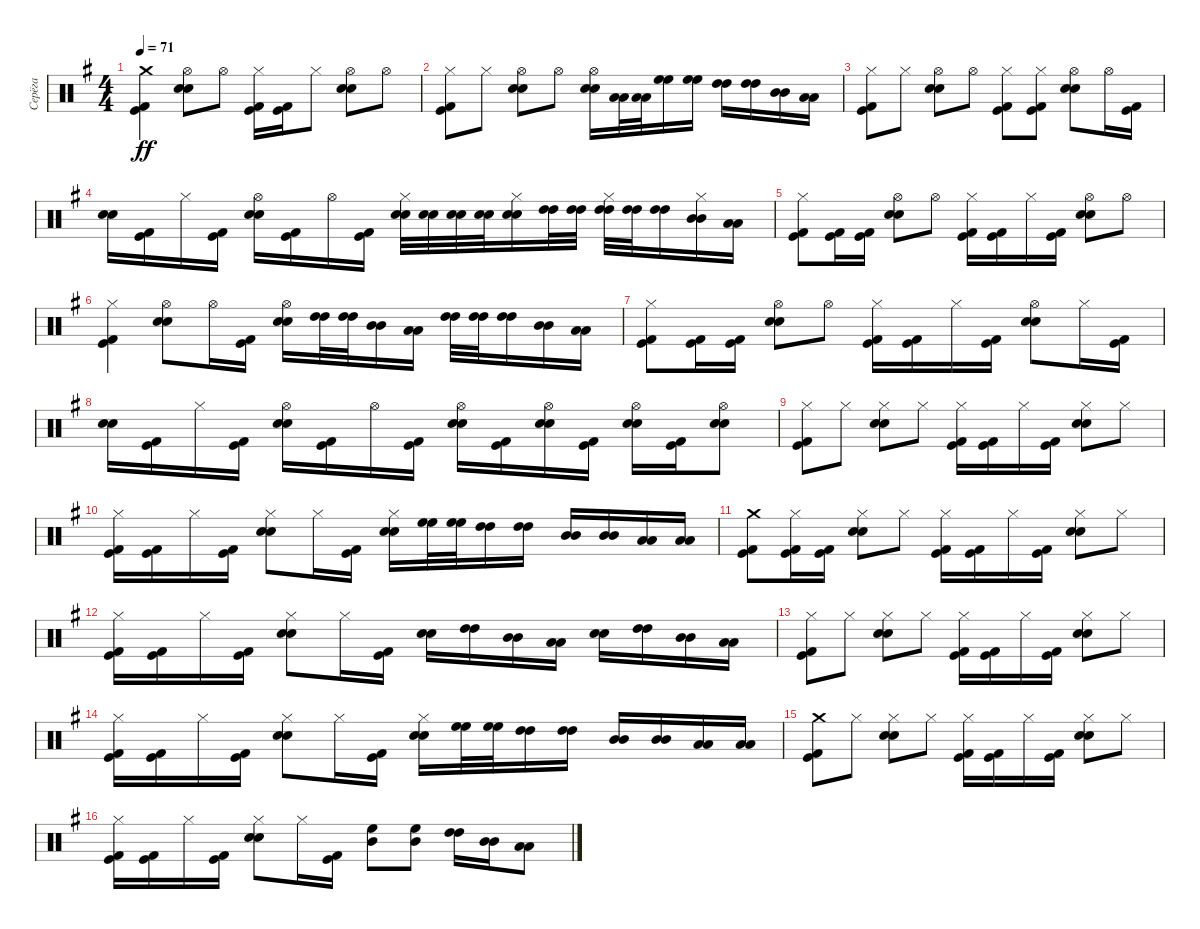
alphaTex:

\track ("Серёга" "Серёга") {instrument percussion}
\staff {score}
\articulation defaults
\ts (4 4)
\tempo 71
\clef neutral
\ks eminor
("Crash medium (hit)" "Kick (hit)" "Kick (hit) 2").4{dy ff} ("Hi-Hat (open)" "Electric Snare (hit)" "Snare (hit) 2").8 "Hi-Hat (open)".8 ("Hi-Hat (closed)" "Kick (hit)" "Kick (hit) 2").16 ("Kick (hit)" "Kick (hit) 2").16 "Hi-Hat (closed)".8 ("Hi-Hat (open)" "Electric Snare (hit)" "Snare (hit) 2").8 "Hi-Hat (open)".8 |
("Hi-Hat (closed)" "Kick (hit)" "Kick (hit) 2").8 "Hi-Hat (closed)".8 ("Hi-Hat (open)" "Electric Snare (hit)" "Snare (hit) 2").8 "Hi-Hat (open)".8 ("Hi-Hat (open)" "Electric Snare (hit)" "Snare (hit) 2").16 ("Low Tom (hit)" "Low Tom (hit)").32 ("Low Tom (hit)" "Low Tom (hit)").32 ("High Floor Tom (hit)" "High Floor Tom (hit)").16 ("High Floor Tom (hit)" "High Floor Tom (hit)").16 ("High Tom (hit)" "High Tom (hit)").16 ("High Tom (hit)" "High Tom (hit)").16 ("Mid Tom (hit)" "Mid Tom (hit)").16 ("Low Tom (hit)" "Low Tom (hit)").16 |
("Hi-Hat (closed)" "Kick (hit)" "Kick (hit) 2").8 "Hi-Hat (closed)".8 ("Hi-Hat (open)" "Electric Snare (hit)" "Snare (hit) 2").8 "Hi-Hat (open)".8 ("Hi-Hat (closed)" "Kick (hit)" "Kick (hit) 2").8 ("Hi-Hat (closed)" "Kick (hit)" "Kick (hit) 2").8 ("Hi-Hat (open)" "Electric Snare (hit)" "Snare (hit) 2").8 "Hi-Hat (open)".16 ("Kick (hit)" "Kick (hit) 2").16 |
("Electric Snare (hit)" "Snare (hit) 2").16 ("Kick (hit)" "Kick (hit) 2").16 "Hi-Hat (closed)".16 ("Kick (hit)" "Kick (hit) 2").16 ("Hi-Hat (open)" "Electric Snare (hit)" "Snare (hit) 2").16 ("Kick (hit)" "Kick (hit) 2").16 "Hi-Hat (open)".16 ("Kick (hit)" "Kick (hit) 2").16 ("Hi-Hat (closed)" "Snare (hit) 2" "Electric Snare (hit)").32 ("Snare (hit) 2" "Electric Snare (hit)").32 ("Snare (hit) 2" "Electric Snare (hit)").32 ("Snare (hit) 2" "Electric Snare (hit)").32 ("Hi-Hat (closed)" "Snare (hit) 2" "Electric Snare (hit)").16 ("High Tom (hit)" "High Tom (hit)").32 ("High Tom (hit)" "High Tom (hit)").32 ("Hi-Hat (closed)" "High Tom (hit)" "High Tom (hit)").32 ("High Tom (hit)" "High Tom (hit)").32 ("High Tom (hit)" "High Tom (hit)").16 ("Hi-Hat (closed)" "Mid Tom (hit)" "Mid Tom (hit)").16 ("Low Tom (hit)" "Low Tom (hit)").16 |
("Hi-Hat (closed)" "Kick (hit)" "Kick (hit) 2").8 ("Kick (hit)" "Kick (hit) 2").16 ("Kick (hit)" "Kick (hit) 2").16 ("Hi-Hat (open)" "Electric Snare (hit)" "Snare (hit) 2").8 "Hi-Hat (open)".8 ("Hi-Hat (closed)" "Kick (hit)" "Kick (hit) 2").16 ("Kick (hit)" "Kick (hit) 2").16 "Hi-Hat (closed)".16 ("Kick (hit)" "Kick (hit) 2").16 ("Hi-Hat (open)" "Electric Snare (hit)" "Snare (hit) 2").8 "Hi-Hat (open)".8 |
("Hi-Hat (closed)" "Kick (hit)" "Kick (hit) 2").4 ("Hi-Hat (open)" "Electric Snare (hit)" "Snare (hit) 2").8 "Hi-Hat (open)".16 ("Kick (hit)" "Kick (hit) 2").16 ("Hi-Hat (open)" "Snare (hit) 2" "Electric Snare (hit)").16 ("High Tom (hit)" "High Tom (hit)").32 ("High Tom (hit)" "High Tom (hit)").32 ("Mid Tom (hit)" "Mid Tom (hit)").16 ("Low Tom (hit)" "Low Tom (hit)").16 ("High Tom (hit)" "High Tom (hit)").32 ("High Tom (hit)" "High Tom (hit)").32 ("High Tom (hit)" "High Tom (hit)").16 ("Mid Tom (hit)" "Mid Tom (hit)").16 ("Low Tom (hit)" "Low Tom (hit)").16 |
("Hi-Hat (closed)" "Kick (hit)" "Kick (hit) 2").8 ("Kick (hit)" "Kick (hit) 2").16 ("Kick (hit)" "Kick (hit) 2").16 ("Hi-Hat (open)" "Electric Snare (hit)" "Snare (hit) 2").8 "Hi-Hat (open)".8 ("Hi-Hat (closed)" "Kick (hit)" "Kick (hit) 2").16 ("Kick (hit)" "Kick (hit) 2").16 "Hi-Hat (closed)".16 ("Kick (hit)" "Kick (hit) 2").16 ("Hi-Hat (open)" "Electric Snare (hit)" "Snare (hit) 2").8 "Hi-Hat (closed)".16 ("Kick (hit)" "Kick (hit) 2").16 |
("Electric Snare (hit)" "Snare (hit) 2").16 ("Kick (hit)" "Kick (hit) 2").16 "Hi-Hat (closed)".16 ("Kick (hit)" "Kick (hit) 2").16 ("Hi-Hat (open)" "Snare (hit) 2" "Electric Snare (hit)").16 ("Kick (hit)" "Kick (hit) 2").16 "Hi-Hat (open)".16 ("Kick (hit)" "Kick (hit) 2").16 ("Hi-Hat (open)" "Electric Snare (hit)" "Snare (hit) 2").16 ("Kick (hit)" "Kick (hit) 2").16 ("Hi-Hat (open)" "Electric Snare (hit)" "Snare (hit) 2").16 ("Kick (hit)" "Kick (hit) 2").16 ("Hi-Hat (open)" "Electric Snare (hit)" "Snare (hit) 2").16 ("Kick (hit)" "Kick (hit) 2").16 ("Hi-Hat (open)" "Electric Snare (hit)" "Snare (hit) 2").8 |
("Hi-Hat (closed)" "Kick (hit)" "Kick (hit) 2").8 "Hi-Hat (closed)".8 ("Hi-Hat (closed)" "Snare (hit) 2" "Electric Snare (hit)").8 "Hi-Hat (closed)".8 ("Hi-Hat (closed)" "Kick (hit)" "Kick (hit) 2").16 ("Kick (hit)" "Kick (hit) 2").16 "Hi-Hat (closed)".16 ("Kick (hit)" "Kick (hit) 2").16 ("Hi-Hat (closed)" "Snare (hit) 2" "Electric Snare (hit)").8 "Hi-Hat (closed)".8 |
("Hi-Hat (closed)" "Kick (hit)" "Kick (hit) 2").16 ("Kick (hit)" "Kick (hit) 2").16 "Hi-Hat (closed)".16 ("Kick (hit)" "Kick (hit) 2").16 ("Hi-Hat (closed)" "Snare (hit) 2" "Electric Snare (hit)").8 "Hi-Hat (closed)".16 ("Kick (hit)" "Kick (hit) 2").16 ("Hi-Hat (closed)" "Snare (hit) 2" "Electric Snare (hit)").16 ("High Floor Tom (hit)" "High Floor Tom (hit)").32 ("High Floor Tom (hit)" "High Floor Tom (hit)").32 ("High Tom (hit)" "High Tom (hit)").16 ("High Tom (hit)" "High Tom (hit)").16 ("Mid Tom (hit)" "Mid Tom (hit)").16 ("Mid Tom (hit)" "Mid Tom (hit)").16 ("Low Tom (hit)" "Low Tom (hit)").16 ("Low Tom (hit)" "Low Tom (hit)").16 |
("Crash medium (hit)" "Kick (hit)" "Kick (hit) 2").8 ("Hi-Hat (closed)" "Kick (hit)" "Kick (hit) 2").16 ("Kick (hit)" "Kick (hit) 2").16 ("Hi-Hat (closed)" "Snare (hit) 2" "Electric Snare (hit)").8 "Hi-Hat (closed)".8 ("Hi-Hat (closed)" "Kick (hit)" "Kick (hit) 2").16 ("Kick (hit)" "Kick (hit) 2").16 "Hi-Hat (closed)".16 ("Kick (hit)" "Kick (hit) 2").16 ("Hi-Hat (closed)" "Snare (hit) 2" "Electric Snare (hit)").8 "Hi-Hat (closed)".8 |
("Hi-Hat (closed)" "Kick (hit)" "Kick (hit) 2").16 ("Kick (hit)" "Kick (hit) 2").16 "Hi-Hat (closed)".16 ("Kick (hit)" "Kick (hit) 2").16 ("Hi-Hat (closed)" "Snare (hit) 2" "Electric Snare (hit)").8 "Hi-Hat (closed)".16 ("Kick (hit)" "Kick (hit) 2").16 ("Electric Snare (hit)" "Snare (hit) 2").16 ("High Tom (hit)" "High Tom (hit)").16 ("Mid Tom (hit)" "Mid Tom (hit)").16 ("Low Tom (hit)" "Low Tom (hit)").16 ("Electric Snare (hit)" "Snare (hit) 2").16 ("High Tom (hit)" "High Tom (hit)").16 ("Mid Tom (hit)" "Mid Tom (hit)").16 ("Low Tom (hit)" "Low Tom (hit)").16 |
("Hi-Hat (closed)" "Kick (hit)" "Kick (hit) 2").8 "Hi-Hat (closed)".8 ("Hi-Hat (closed)" "Snare (hit) 2" "Electric Snare (hit)").8 "Hi-Hat (closed)".8 ("Hi-Hat (closed)" "Kick (hit)" "Kick (hit) 2").16 ("Kick (hit)" "Kick (hit) 2").16 "Hi-Hat (closed)".16 ("Kick (hit)" "Kick (hit) 2").16 ("Hi-Hat (closed)" "Snare (hit) 2" "Electric Snare (hit)").8 "Hi-Hat (closed)".8 |
("Hi-Hat (closed)" "Kick (hit)" "Kick (hit) 2").16 ("Kick (hit)" "Kick (hit) 2").16 "Hi-Hat (closed)".16 ("Kick (hit)" "Kick (hit) 2").16 ("Hi-Hat (closed)" "Snare (hit) 2" "Electric Snare (hit)").8 "Hi-Hat (closed)".16 ("Kick (hit)" "Kick (hit) 2").16 ("Hi-Hat (closed)" "Snare (hit) 2" "Electric Snare (hit)").16 ("High Floor Tom (hit)" "High Floor Tom (hit)").32 ("High Floor Tom (hit)" "High Floor Tom (hit)").32 ("High Tom (hit)" "High Tom (hit)").16 ("High Tom (hit)" "High Tom (hit)").16 ("Mid Tom (hit)" "Mid Tom (hit)").16 ("Mid Tom (hit)" "Mid Tom (hit)").16 ("Low Tom (hit)" "Low Tom (hit)").16 ("Low Tom (hit)" "Low Tom (hit)").16 |
("Crash medium (hit)" "Kick (hit)" "Kick (hit) 2").8 "Hi-Hat (closed)".8 ("Hi-Hat (closed)" "Snare (hit) 2" "Electric Snare (hit)").8 "Hi-Hat (closed)".8 ("Hi-Hat (closed)" "Kick (hit)" "Kick (hit) 2").16 ("Kick (hit)" "Kick (hit) 2").16 "Hi-Hat (closed)".16 ("Kick (hit)" "Kick (hit) 2").16 ("Hi-Hat (closed)" "Snare (hit) 2" "Electric Snare (hit)").8 "Hi-Hat (closed)".8 |
("Hi-Hat (closed)" "Kick (hit)" "Kick (hit) 2").16 ("Kick (hit)" "Kick (hit) 2").16 "Hi-Hat (closed)".16 ("Kick (hit)" "Kick (hit) 2").16 ("Hi-Hat (closed)" "Snare (hit) 2" "Electric Snare (hit)").8 "Hi-Hat (closed)".16 ("Kick (hit)" "Kick (hit) 2").16 ("High Floor Tom (hit)" "Mid Tom (hit)").8 ("High Floor Tom (hit)" "Mid Tom (hit)").8 ("High Tom (hit)" "High Tom (hit)").16 ("Mid Tom (hit)" "Mid Tom (hit)").16 ("Low Tom (hit)" "Low Tom (hit)").8
